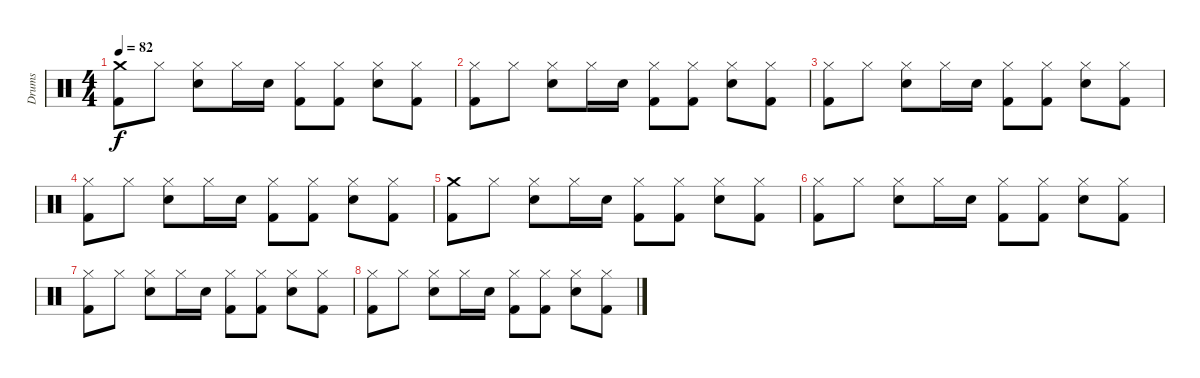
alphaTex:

\track ("Drums" "Drums") {instrument percussion}
\staff {score}
\articulation defaults
\ts (4 4)
\tempo 82
\clef neutral
\ks c
("Crash medium (hit)" "Kick (hit) 2").8{dy f} "Hi-Hat (closed)".8 ("Hi-Hat (closed)" "Electric Snare (hit)").8 "Hi-Hat (closed)".16 "Electric Snare (hit)".16 ("Hi-Hat (closed)" "Kick (hit) 2").8 ("Hi-Hat (closed)" "Kick (hit) 2").8 ("Hi-Hat (closed)" "Electric Snare (hit)").8 ("Hi-Hat (closed)" "Kick (hit) 2").8 |
("Hi-Hat (closed)" "Kick (hit) 2").8 "Hi-Hat (closed)".8 ("Hi-Hat (closed)" "Electric Snare (hit)").8 "Hi-Hat (closed)".16 "Electric Snare (hit)".16 ("Hi-Hat (closed)" "Kick (hit) 2").8 ("Hi-Hat (closed)" "Kick (hit) 2").8 ("Hi-Hat (closed)" "Electric Snare (hit)").8 ("Hi-Hat (closed)" "Kick (hit) 2").8 |
("Hi-Hat (closed)" "Kick (hit) 2").8 "Hi-Hat (closed)".8 ("Hi-Hat (closed)" "Electric Snare (hit)").8 "Hi-Hat (closed)".16 "Electric Snare (hit)".16 ("Hi-Hat (closed)" "Kick (hit) 2").8 ("Hi-Hat (closed)" "Kick (hit) 2").8 ("Hi-Hat (closed)" "Electric Snare (hit)").8 ("Hi-Hat (closed)" "Kick (hit) 2").8 |
("Hi-Hat (closed)" "Kick (hit) 2").8 "Hi-Hat (closed)".8 ("Hi-Hat (closed)" "Electric Snare (hit)").8 "Hi-Hat (closed)".16 "Electric Snare (hit)".16 ("Hi-Hat (closed)" "Kick (hit) 2").8 ("Hi-Hat (closed)" "Kick (hit) 2").8 ("Hi-Hat (closed)" "Electric Snare (hit)").8 ("Hi-Hat (closed)" "Kick (hit) 2").8 |
("Crash medium (hit)" "Kick (hit) 2").8 "Hi-Hat (closed)".8 ("Hi-Hat (closed)" "Electric Snare (hit)").8 "Hi-Hat (closed)".16 "Electric Snare (hit)".16 ("Hi-Hat (closed)" "Kick (hit) 2").8 ("Hi-Hat (closed)" "Kick (hit) 2").8 ("Hi-Hat (closed)" "Electric Snare (hit)").8 ("Hi-Hat (closed)" "Kick (hit) 2").8 |
("Hi-Hat (closed)" "Kick (hit) 2").8 "Hi-Hat (closed)".8 ("Hi-Hat (closed)" "Electric Snare (hit)").8 "Hi-Hat (closed)".16 "Electric Snare (hit)".16 ("Hi-Hat (closed)" "Kick (hit) 2").8 ("Hi-Hat (closed)" "Kick (hit) 2").8 ("Hi-Hat (closed)" "Electric Snare (hit)").8 ("Hi-Hat (closed)" "Kick (hit) 2").8 |
("Hi-Hat (closed)" "Kick (hit) 2").8 "Hi-Hat (closed)".8 ("Hi-Hat (closed)" "Electric Snare (hit)").8 "Hi-Hat (closed)".16 "Electric Snare (hit)".16 ("Hi-Hat (closed)" "Kick (hit) 2").8 ("Hi-Hat (closed)" "Kick (hit) 2").8 ("Hi-Hat (closed)" "Electric Snare (hit)").8 ("Hi-Hat (closed)" "Kick (hit) 2").8 |
("Hi-Hat (closed)" "Kick (hit) 2").8 "Hi-Hat (closed)".8 ("Hi-Hat (closed)" "Electric Snare (hit)").8 "Hi-Hat (closed)".16 "Electric Snare (hit)".16 ("Hi-Hat (closed)" "Kick (hit) 2").8 ("Hi-Hat (closed)" "Kick (hit) 2").8 ("Hi-Hat (closed)" "Electric Snare (hit)").8 ("Hi-Hat (closed)" "Kick (hit) 2").8
